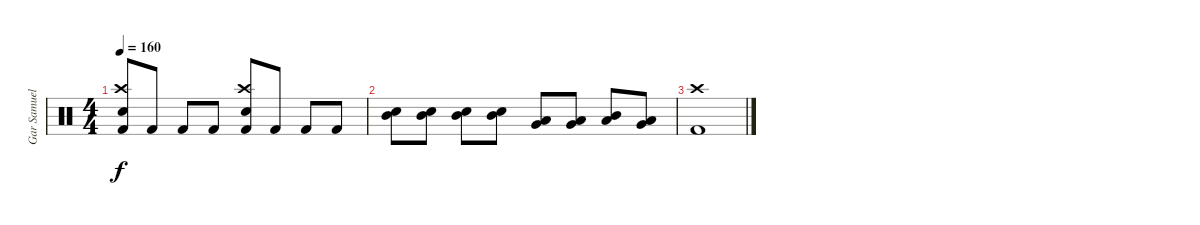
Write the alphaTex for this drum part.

\track ("Gar Samuelson (Drums)" "Gar Samuel") {instrument percussion}
\staff {score}
\articulation defaults
\ts (4 4)
\tempo 160
\clef neutral
\ks c
("Electric Snare (hit)" "Crash high (hit)" "Kick (hit) 2").8{dy f} "Kick (hit) 2".8 "Kick (hit) 2".8 "Kick (hit) 2".8 ("Electric Snare (hit)" "Crash high (hit)" "Kick (hit) 2").8 "Kick (hit) 2".8 "Kick (hit) 2".8 "Kick (hit) 2".8 |
("Electric Snare (hit)" "Mid Tom (hit)").8 ("Electric Snare (hit)" "Mid Tom (hit)").8 ("Electric Snare (hit)" "Mid Tom (hit)").8 ("Electric Snare (hit)" "Mid Tom (hit)").8 ("Low Floor Tom (hit)" "Very Low Tom (hit)").8 ("Low Floor Tom (hit)" "Very Low Tom (hit)").8 ("Low Floor Tom (hit)" "Mid Tom (hit)").8 ("Low Floor Tom (hit)" "Very Low Tom (hit)").8 |
("Crash high (hit)" "Kick (hit) 2").1
